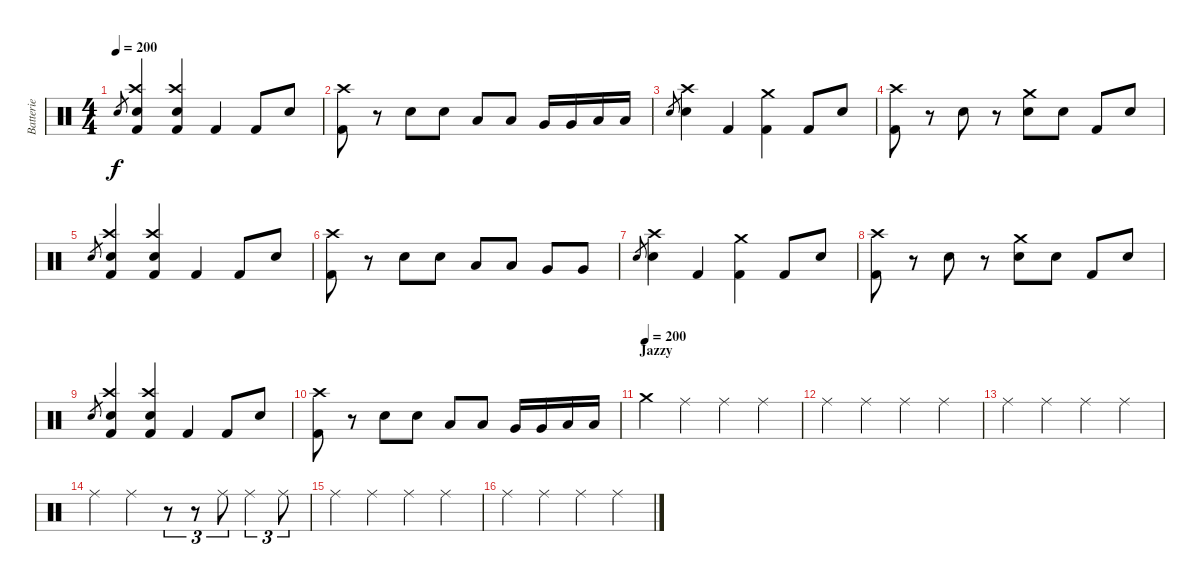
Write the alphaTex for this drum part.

\track ("Batterie" "Batterie") {instrument percussion}
\staff {score}
\articulation defaults
\ts (4 4)
\tempo 200
\clef neutral
\ks c "Snare (hit) 2".8{gr dy f}
("Crash high (hit)" "Snare (hit) 2" "Kick (hit) 2").4 ("Crash high (hit)" "Snare (hit) 2" "Kick (hit) 2").4 "Kick (hit) 2".4 "Kick (hit) 2".8 "Snare (hit) 2".8 |
("Crash high (hit)" "Kick (hit) 2").8 r.8 "Snare (hit) 2".8 "Snare (hit) 2".8 "Low Tom (hit)".8 "Low Tom (hit)".8 "Very Low Tom (hit)".16 "Very Low Tom (hit)".16 "Low Floor Tom (hit)".16 "Low Floor Tom (hit)".16 |
"Snare (hit) 2".8{gr} ("Crash high (hit)" "Snare (hit) 2").4 "Kick (hit) 2".4 ("Crash medium (hit)" "Kick (hit) 2").4 "Kick (hit) 2".8 "Snare (hit) 2".8 |
("Crash high (hit)" "Kick (hit) 2").8 r.8 "Snare (hit) 2".8 r.8 ("Crash medium (hit)" "Snare (hit) 2").8 "Snare (hit) 2".8 "Kick (hit) 2".8 "Snare (hit) 2".8 |
"Snare (hit) 2".8{gr} ("Crash high (hit)" "Snare (hit) 2" "Kick (hit) 2").4 ("Crash high (hit)" "Snare (hit) 2" "Kick (hit) 2").4 "Kick (hit) 2".4 "Kick (hit) 2".8 "Snare (hit) 2".8 |
("Crash high (hit)" "Kick (hit) 2").8 r.8 "Snare (hit) 2".8 "Snare (hit) 2".8 "Low Tom (hit)".8 "Low Tom (hit)".8 "Very Low Tom (hit)".8 "Very Low Tom (hit)".8 |
"Snare (hit) 2".8{gr} ("Crash high (hit)" "Snare (hit) 2").4 "Kick (hit) 2".4 ("Crash medium (hit)" "Kick (hit) 2").4 "Kick (hit) 2".8 "Snare (hit) 2".8 |
("Crash high (hit)" "Kick (hit) 2").8 r.8 "Snare (hit) 2".8 r.8 ("Crash medium (hit)" "Snare (hit) 2").8 "Snare (hit) 2".8 "Kick (hit) 2".8 "Snare (hit) 2".8 |
"Snare (hit) 2".8{gr} ("Crash high (hit)" "Snare (hit) 2" "Kick (hit) 2").4 ("Crash high (hit)" "Snare (hit) 2" "Kick (hit) 2").4 "Kick (hit) 2".4 "Kick (hit) 2".8 "Snare (hit) 2".8 |
("Crash high (hit)" "Kick (hit) 2").8 r.8 "Snare (hit) 2".8 "Snare (hit) 2".8 "Low Tom (hit)".8 "Low Tom (hit)".8 "Very Low Tom (hit)".16 "Very Low Tom (hit)".16 "Low Floor Tom (hit)".16 "Low Floor Tom (hit)".16 |
\section ("" "Jazzy")
\tempo (200)
"Crash medium (hit)".4 "Ride (middle)".4 "Ride (middle)".4 "Ride (middle)".4 |
"Ride (middle)".4 "Ride (middle)".4 "Ride (middle)".4 "Ride (middle)".4 |
"Ride (middle)".4 "Ride (middle)".4 "Ride (middle)".4 "Ride (middle)".4 |
"Ride (middle)".4 "Ride (middle)".4 r.8{tu (3 2)} r.8{tu (3 2)} "Ride (middle)".8{tu (3 2)} "Ride (middle)".4{tu (3 2)} "Ride (middle)".8{tu (3 2)} |
"Ride (middle)".4 "Ride (middle)".4 "Ride (middle)".4 "Ride (middle)".4 |
"Ride (middle)".4 "Ride (middle)".4 "Ride (middle)".4 "Ride (middle)".4
